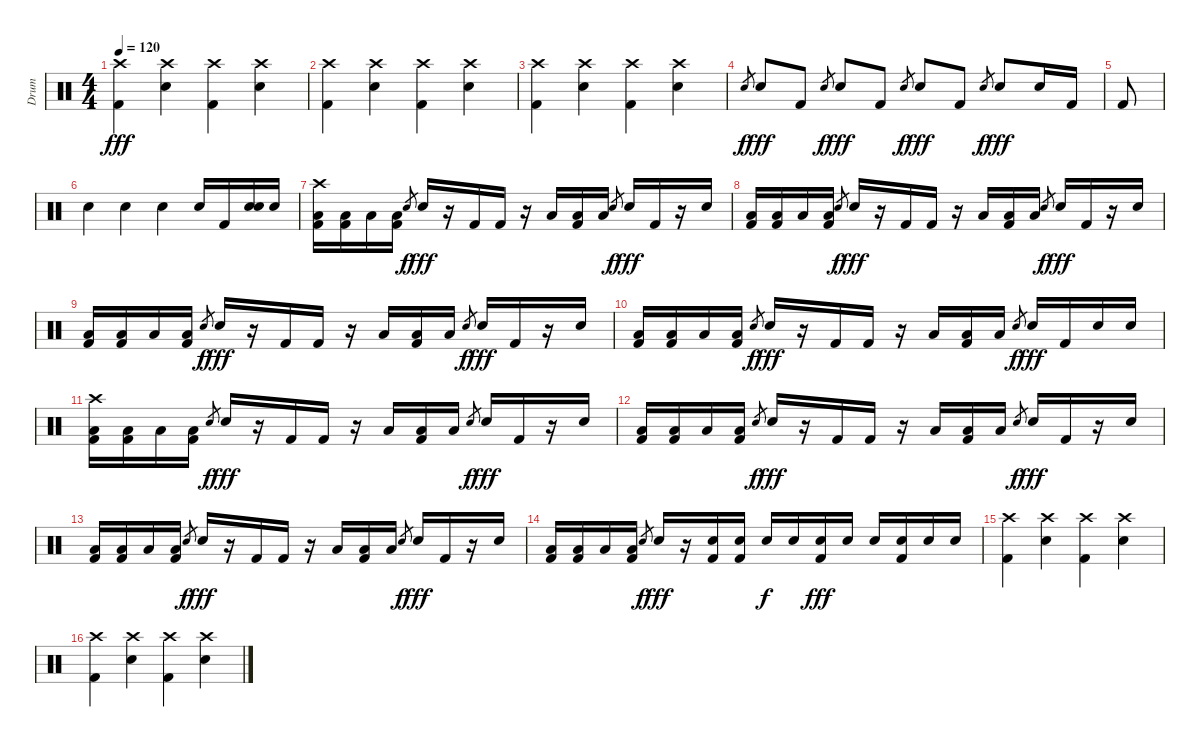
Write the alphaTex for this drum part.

\track ("Drum" "Drum") {instrument percussion}
\staff {score}
\articulation defaults
\ts (4 4)
\tempo 120
\clef neutral
\ks c
("Crash high (hit)" "Kick (hit) 2").4{dy fff} ("Crash high (hit)" "Snare (hit) 2").4 ("Crash high (hit)" "Kick (hit) 2").4 ("Crash high (hit)" "Snare (hit) 2").4 |
("Crash high (hit)" "Kick (hit) 2").4 ("Crash high (hit)" "Snare (hit) 2").4 ("Crash high (hit)" "Kick (hit) 2").4 ("Crash high (hit)" "Snare (hit) 2").4 |
("Crash high (hit)" "Kick (hit) 2").4 ("Crash high (hit)" "Snare (hit) 2").4 ("Crash high (hit)" "Kick (hit) 2").4 ("Crash high (hit)" "Snare (hit) 2").4 |
"Snare (hit) 2".8{gr dy f} "Snare (hit) 2".8{dy fff} "Kick (hit) 2".8 "Snare (hit) 2".8{gr dy f} "Snare (hit) 2".8{dy fff} "Kick (hit) 2".8 "Snare (hit) 2".8{gr dy f} "Snare (hit) 2".8{dy fff} "Kick (hit) 2".8 "Snare (hit) 2".8{gr dy f} "Snare (hit) 2".8{dy fff} "Snare (hit)".16 "Kick (hit) 2".16 |
"Kick (hit) 2".8 |
"Snare (hit)".4 "Snare (hit)".4 "Snare (hit)".4 "Snare (hit)".16 "Kick (hit) 2".16 ("Snare (hit) 2" "Snare (hit)").16 "Snare (hit)".16 |
("Crash high (hit)" "Low Floor Tom (hit)" "Kick (hit) 2").16 ("Low Floor Tom (hit)" "Kick (hit) 2").16 "Low Floor Tom (hit)".16 ("Low Tom (hit)" "Kick (hit) 2").16 "Snare (hit) 2".8{gr dy f} "Snare (hit) 2".16{dy fff} r.16 "Kick (hit) 2".16 "Kick (hit) 2".16 r.16 "Low Floor Tom (hit)".16 ("Low Floor Tom (hit)" "Kick (hit) 2").16 "Low Floor Tom (hit)".16 "Snare (hit) 2".8{gr dy f} "Snare (hit) 2".16{dy fff} "Kick (hit) 2".16 r.16 "Snare (hit)".16 |
("Low Floor Tom (hit)" "Kick (hit) 2").16 ("Low Floor Tom (hit)" "Kick (hit) 2").16 "Low Floor Tom (hit)".16 ("Low Tom (hit)" "Kick (hit) 2").16 "Snare (hit) 2".8{gr dy f} "Snare (hit) 2".16{dy fff} r.16 "Kick (hit) 2".16 "Kick (hit) 2".16 r.16 "Low Floor Tom (hit)".16 ("Low Floor Tom (hit)" "Kick (hit) 2").16 "Low Floor Tom (hit)".16 "Snare (hit) 2".8{gr dy f} "Snare (hit) 2".16{dy fff} "Kick (hit) 2".16 r.16 "Snare (hit)".16 |
("Low Floor Tom (hit)" "Kick (hit) 2").16 ("Low Floor Tom (hit)" "Kick (hit) 2").16 "Low Floor Tom (hit)".16 ("Low Tom (hit)" "Kick (hit) 2").16 "Snare (hit) 2".8{gr dy f} "Snare (hit) 2".16{dy fff} r.16 "Kick (hit) 2".16 "Kick (hit) 2".16 r.16 "Low Floor Tom (hit)".16 ("Low Floor Tom (hit)" "Kick (hit) 2").16 "Low Floor Tom (hit)".16 "Snare (hit) 2".8{gr dy f} "Snare (hit) 2".16{dy fff} "Kick (hit) 2".16 r.16 "Snare (hit)".16 |
("Low Floor Tom (hit)" "Kick (hit) 2").16 ("Low Floor Tom (hit)" "Kick (hit) 2").16 "Low Floor Tom (hit)".16 ("Low Tom (hit)" "Kick (hit) 2").16 "Snare (hit) 2".8{gr dy f} "Snare (hit) 2".16{dy fff} r.16 "Kick (hit) 2".16 "Kick (hit) 2".16 r.16 "Low Floor Tom (hit)".16 ("Low Floor Tom (hit)" "Kick (hit) 2").16 "Low Floor Tom (hit)".16 "Snare (hit) 2".8{gr dy f} "Snare (hit) 2".16{dy fff} "Kick (hit) 2".16 "Snare (hit) 2".16 "Snare (hit) 2".16 |
("Crash high (hit)" "Low Floor Tom (hit)" "Kick (hit) 2").16 ("Low Floor Tom (hit)" "Kick (hit) 2").16 "Low Floor Tom (hit)".16 ("Low Tom (hit)" "Kick (hit) 2").16 "Snare (hit) 2".8{gr dy f} "Snare (hit) 2".16{dy fff} r.16 "Kick (hit) 2".16 "Kick (hit) 2".16 r.16 "Low Floor Tom (hit)".16 ("Low Floor Tom (hit)" "Kick (hit) 2").16 "Low Floor Tom (hit)".16 "Snare (hit) 2".8{gr dy f} "Snare (hit) 2".16{dy fff} "Kick (hit) 2".16 r.16 "Snare (hit)".16 |
("Low Floor Tom (hit)" "Kick (hit) 2").16 ("Low Floor Tom (hit)" "Kick (hit) 2").16 "Low Floor Tom (hit)".16 ("Low Tom (hit)" "Kick (hit) 2").16 "Snare (hit) 2".8{gr dy f} "Snare (hit) 2".16{dy fff} r.16 "Kick (hit) 2".16 "Kick (hit) 2".16 r.16 "Low Floor Tom (hit)".16 ("Low Floor Tom (hit)" "Kick (hit) 2").16 "Low Floor Tom (hit)".16 "Snare (hit) 2".8{gr dy f} "Snare (hit) 2".16{dy fff} "Kick (hit) 2".16 r.16 "Snare (hit)".16 |
("Low Floor Tom (hit)" "Kick (hit) 2").16 ("Low Floor Tom (hit)" "Kick (hit) 2").16 "Low Floor Tom (hit)".16 ("Low Tom (hit)" "Kick (hit) 2").16 "Snare (hit) 2".8{gr dy f} "Snare (hit) 2".16{dy fff} r.16 "Kick (hit) 2".16 "Kick (hit) 2".16 r.16 "Low Floor Tom (hit)".16 ("Low Floor Tom (hit)" "Kick (hit) 2").16 "Low Floor Tom (hit)".16 "Snare (hit) 2".8{gr dy f} "Snare (hit) 2".16{dy fff} "Kick (hit) 2".16 r.16 "Snare (hit)".16 |
("Low Floor Tom (hit)" "Kick (hit) 2").16 ("Low Floor Tom (hit)" "Kick (hit) 2").16 "Low Floor Tom (hit)".16 ("Low Tom (hit)" "Kick (hit) 2").16 "Snare (hit) 2".8{gr dy f} "Snare (hit) 2".16{dy fff} r.16 ("Snare (hit) 2" "Kick (hit) 2").16 ("Snare (hit) 2" "Kick (hit) 2").16 "Snare (hit) 2".16{dy f} "Snare (hit) 2".16 ("Snare (hit) 2" "Kick (hit) 2").16{dy fff} "Snare (hit) 2".16 "Snare (hit) 2".16 ("Snare (hit) 2" "Kick (hit) 2").16 "Snare (hit) 2".16 "Snare (hit) 2".16 |
("Crash high (hit)" "Kick (hit) 2").4 ("Crash high (hit)" "Snare (hit) 2").4 ("Crash high (hit)" "Kick (hit) 2").4 ("Crash high (hit)" "Snare (hit) 2").4 |
("Crash high (hit)" "Kick (hit) 2").4 ("Crash high (hit)" "Snare (hit) 2").4 ("Crash high (hit)" "Kick (hit) 2").4 ("Crash high (hit)" "Snare (hit) 2").4
